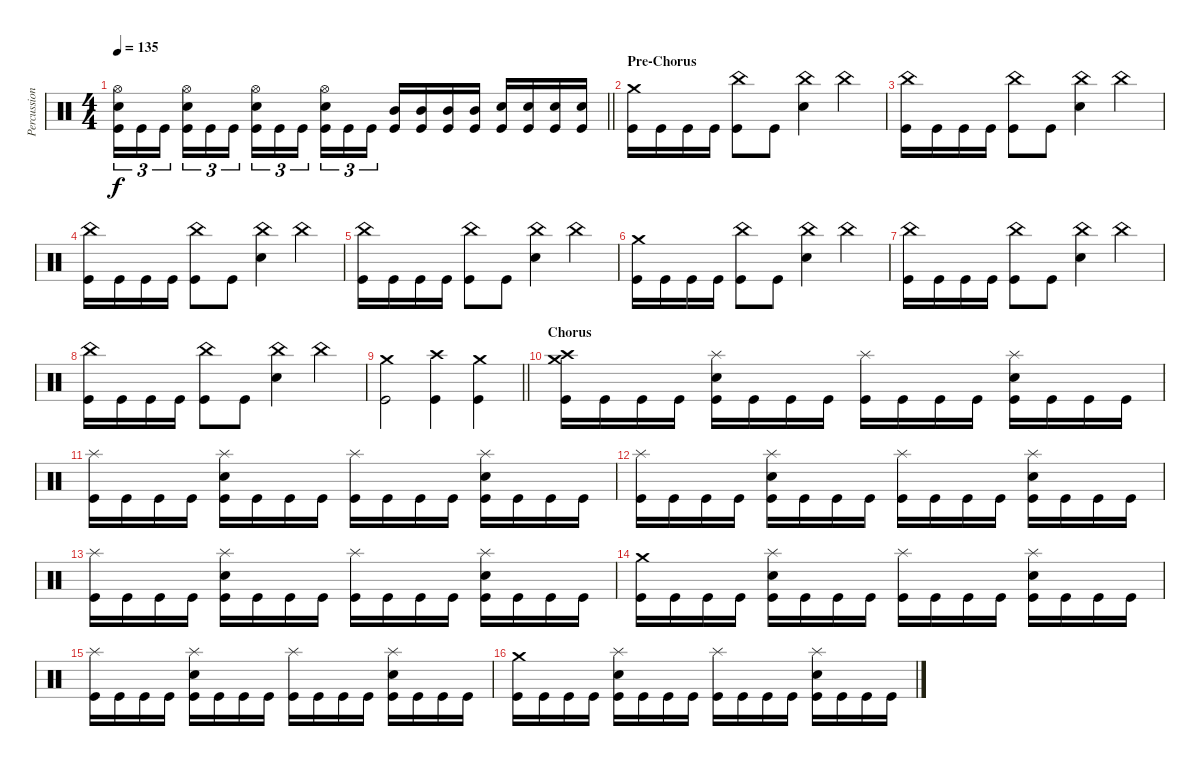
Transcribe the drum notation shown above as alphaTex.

\track ("Percussion" "Percussion") {instrument percussion}
\staff {score}
\articulation defaults
\ts (4 4)
\tempo 135
\clef neutral
\barLineRight lightlight
\ks c
("Hi-Hat (open)" "Electric Snare (hit)" "Kick (hit)").16{tu (3 2) dy f} "Kick (hit)".16{tu (3 2)} "Kick (hit)".16{tu (3 2) beam splitsecondary} ("Hi-Hat (open)" "Electric Snare (hit)" "Kick (hit)").16{tu (3 2)} "Kick (hit)".16{tu (3 2)} "Kick (hit)".16{tu (3 2)} ("Hi-Hat (open)" "Electric Snare (hit)" "Kick (hit)").16{tu (3 2)} "Kick (hit)".16{tu (3 2)} "Kick (hit)".16{tu (3 2) beam splitsecondary} ("Hi-Hat (open)" "Electric Snare (hit)" "Kick (hit)").16{tu (3 2)} "Kick (hit)".16{tu (3 2)} "Kick (hit)".16{tu (3 2)} ("Mid Tom (hit)" "Kick (hit)").16 ("Mid Tom (hit)" "Kick (hit)").16 ("Mid Tom (hit)" "Kick (hit)").16 ("Mid Tom (hit)" "Kick (hit)").16 ("Electric Snare (hit)" "Kick (hit)").16 ("Electric Snare (hit)" "Kick (hit)").16 ("Electric Snare (hit)" "Kick (hit)").16 ("Electric Snare (hit)" "Kick (hit)").16 |
\section ("" "Pre-Chorus")
("Crash medium (hit)" "Kick (hit)").16 "Kick (hit)".16 "Kick (hit)".16 "Kick (hit)".16 ("China (hit)" "Kick (hit)").8 "Kick (hit)".8 ("China (hit)" "Electric Snare (hit)").4 "China (hit)".4 |
("China (hit)" "Kick (hit)").16 "Kick (hit)".16 "Kick (hit)".16 "Kick (hit)".16 ("China (hit)" "Kick (hit)").8 "Kick (hit)".8 ("China (hit)" "Electric Snare (hit)").4 "China (hit)".4 |
("China (hit)" "Kick (hit)").16 "Kick (hit)".16 "Kick (hit)".16 "Kick (hit)".16 ("China (hit)" "Kick (hit)").8 "Kick (hit)".8 ("China (hit)" "Electric Snare (hit)").4 "China (hit)".4 |
("China (hit)" "Kick (hit)").16 "Kick (hit)".16 "Kick (hit)".16 "Kick (hit)".16 ("China (hit)" "Kick (hit)").8 "Kick (hit)".8 ("China (hit)" "Electric Snare (hit)").4 "China (hit)".4 |
("Crash medium (hit)" "Kick (hit)").16 "Kick (hit)".16 "Kick (hit)".16 "Kick (hit)".16 ("China (hit)" "Kick (hit)").8 "Kick (hit)".8 ("China (hit)" "Electric Snare (hit)").4 "China (hit)".4 |
("China (hit)" "Kick (hit)").16 "Kick (hit)".16 "Kick (hit)".16 "Kick (hit)".16 ("China (hit)" "Kick (hit)").8 "Kick (hit)".8 ("China (hit)" "Electric Snare (hit)").4 "China (hit)".4 |
("China (hit)" "Kick (hit)").16 "Kick (hit)".16 "Kick (hit)".16 "Kick (hit)".16 ("China (hit)" "Kick (hit)").8 "Kick (hit)".8 ("China (hit)" "Electric Snare (hit)").4 "China (hit)".4 |
\barLineRight lightlight
("Crash medium (hit)" "Kick (hit)").2 ("Crash high (hit)" "Kick (hit)").4 ("Crash medium (hit)" "Kick (hit)").4 |
\section ("" "Chorus")
("Crash medium (hit)" "Crash high (hit)" "Kick (hit)").16 "Kick (hit)".16 "Kick (hit)".16 "Kick (hit)".16 ("Splash (hit)" "Electric Snare (hit)" "Kick (hit)").16 "Kick (hit)".16 "Kick (hit)".16 "Kick (hit)".16 ("Splash (hit)" "Kick (hit)").16 "Kick (hit)".16 "Kick (hit)".16 "Kick (hit)".16 ("Splash (hit)" "Electric Snare (hit)" "Kick (hit)").16 "Kick (hit)".16 "Kick (hit)".16 "Kick (hit)".16 |
("Splash (hit)" "Kick (hit)").16 "Kick (hit)".16 "Kick (hit)".16 "Kick (hit)".16 ("Splash (hit)" "Electric Snare (hit)" "Kick (hit)").16 "Kick (hit)".16 "Kick (hit)".16 "Kick (hit)".16 ("Splash (hit)" "Kick (hit)").16 "Kick (hit)".16 "Kick (hit)".16 "Kick (hit)".16 ("Splash (hit)" "Electric Snare (hit)" "Kick (hit)").16 "Kick (hit)".16 "Kick (hit)".16 "Kick (hit)".16 |
("Splash (hit)" "Kick (hit)").16 "Kick (hit)".16 "Kick (hit)".16 "Kick (hit)".16 ("Splash (hit)" "Electric Snare (hit)" "Kick (hit)").16 "Kick (hit)".16 "Kick (hit)".16 "Kick (hit)".16 ("Splash (hit)" "Kick (hit)").16 "Kick (hit)".16 "Kick (hit)".16 "Kick (hit)".16 ("Splash (hit)" "Electric Snare (hit)" "Kick (hit)").16 "Kick (hit)".16 "Kick (hit)".16 "Kick (hit)".16 |
("Splash (hit)" "Kick (hit)").16 "Kick (hit)".16 "Kick (hit)".16 "Kick (hit)".16 ("Splash (hit)" "Electric Snare (hit)" "Kick (hit)").16 "Kick (hit)".16 "Kick (hit)".16 "Kick (hit)".16 ("Splash (hit)" "Kick (hit)").16 "Kick (hit)".16 "Kick (hit)".16 "Kick (hit)".16 ("Splash (hit)" "Electric Snare (hit)" "Kick (hit)").16 "Kick (hit)".16 "Kick (hit)".16 "Kick (hit)".16 |
("Crash medium (hit)" "Kick (hit)").16 "Kick (hit)".16 "Kick (hit)".16 "Kick (hit)".16 ("Splash (hit)" "Electric Snare (hit)" "Kick (hit)").16 "Kick (hit)".16 "Kick (hit)".16 "Kick (hit)".16 ("Splash (hit)" "Kick (hit)").16 "Kick (hit)".16 "Kick (hit)".16 "Kick (hit)".16 ("Splash (hit)" "Electric Snare (hit)" "Kick (hit)").16 "Kick (hit)".16 "Kick (hit)".16 "Kick (hit)".16 |
("Splash (hit)" "Kick (hit)").16 "Kick (hit)".16 "Kick (hit)".16 "Kick (hit)".16 ("Splash (hit)" "Electric Snare (hit)" "Kick (hit)").16 "Kick (hit)".16 "Kick (hit)".16 "Kick (hit)".16 ("Splash (hit)" "Kick (hit)").16 "Kick (hit)".16 "Kick (hit)".16 "Kick (hit)".16 ("Splash (hit)" "Electric Snare (hit)" "Kick (hit)").16 "Kick (hit)".16 "Kick (hit)".16 "Kick (hit)".16 |
("Crash medium (hit)" "Kick (hit)").16 "Kick (hit)".16 "Kick (hit)".16 "Kick (hit)".16 ("Splash (hit)" "Electric Snare (hit)" "Kick (hit)").16 "Kick (hit)".16 "Kick (hit)".16 "Kick (hit)".16 ("Splash (hit)" "Kick (hit)").16 "Kick (hit)".16 "Kick (hit)".16 "Kick (hit)".16 ("Splash (hit)" "Electric Snare (hit)" "Kick (hit)").16 "Kick (hit)".16 "Kick (hit)".16 "Kick (hit)".16
